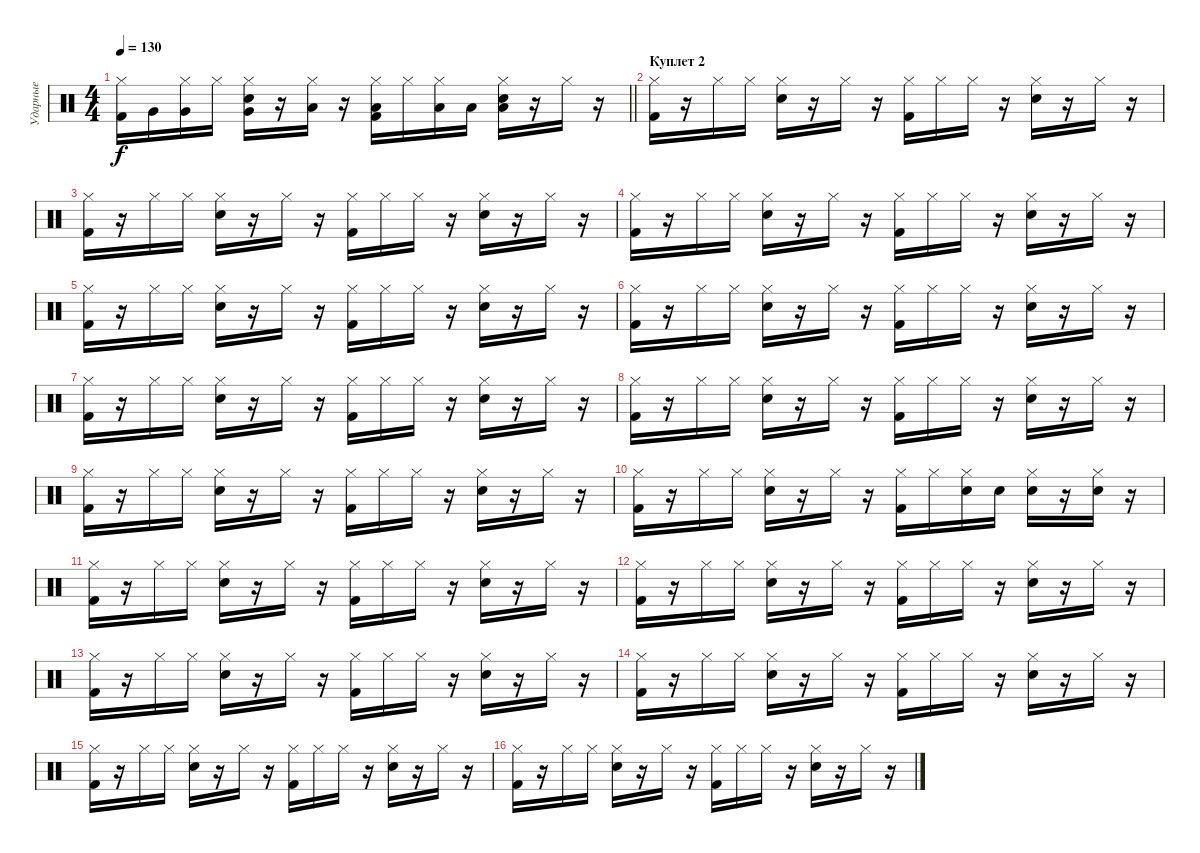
\track ("Ударные" "Ударные") {instrument percussion}
\staff {score}
\articulation defaults
\ts (4 4)
\tempo 130
\clef neutral
\barLineRight lightlight
\ks c
("Kick (hit) 2" "Hi-Hat (closed)").16{dy f} "Very Low Tom (hit)".16 ("Very Low Tom (hit)" "Hi-Hat (closed)").16 "Hi-Hat (closed)".16 ("Snare (hit) 2" "Very Low Tom (hit)" "Hi-Hat (closed)").16 r.16 ("Low Tom (hit)" "Hi-Hat (closed)").16 r.16 ("Kick (hit) 2" "Low Tom (hit)" "Hi-Hat (closed)").16 "Hi-Hat (closed)".16 ("Low Tom (hit)" "Hi-Hat (closed)").16 "Low Tom (hit)".16 ("Snare (hit) 2" "Low Tom (hit)" "Hi-Hat (closed)").16 r.16 "Hi-Hat (closed)".16 r.16 |
\section ("" "Куплет 2")
("Kick (hit) 2" "Hi-Hat (closed)").16 r.16 "Hi-Hat (closed)".16 "Hi-Hat (closed)".16 ("Snare (hit) 2" "Hi-Hat (closed)").16 r.16 "Hi-Hat (closed)".16 r.16 ("Kick (hit) 2" "Hi-Hat (closed)").16 "Hi-Hat (closed)".16 "Hi-Hat (closed)".16 r.16 ("Snare (hit) 2" "Hi-Hat (closed)").16 r.16 "Hi-Hat (closed)".16 r.16 |
("Kick (hit) 2" "Hi-Hat (closed)").16 r.16 "Hi-Hat (closed)".16 "Hi-Hat (closed)".16 ("Snare (hit) 2" "Hi-Hat (closed)").16 r.16 "Hi-Hat (closed)".16 r.16 ("Kick (hit) 2" "Hi-Hat (closed)").16 "Hi-Hat (closed)".16 "Hi-Hat (closed)".16 r.16 ("Snare (hit) 2" "Hi-Hat (closed)").16 r.16 "Hi-Hat (closed)".16 r.16 |
("Kick (hit) 2" "Hi-Hat (closed)").16 r.16 "Hi-Hat (closed)".16 "Hi-Hat (closed)".16 ("Snare (hit) 2" "Hi-Hat (closed)").16 r.16 "Hi-Hat (closed)".16 r.16 ("Kick (hit) 2" "Hi-Hat (closed)").16 "Hi-Hat (closed)".16 "Hi-Hat (closed)".16 r.16 ("Snare (hit) 2" "Hi-Hat (closed)").16 r.16 "Hi-Hat (closed)".16 r.16 |
("Kick (hit) 2" "Hi-Hat (closed)").16 r.16 "Hi-Hat (closed)".16 "Hi-Hat (closed)".16 ("Snare (hit) 2" "Hi-Hat (closed)").16 r.16 "Hi-Hat (closed)".16 r.16 ("Kick (hit) 2" "Hi-Hat (closed)").16 "Hi-Hat (closed)".16 "Hi-Hat (closed)".16 r.16 ("Snare (hit) 2" "Hi-Hat (closed)").16 r.16 "Hi-Hat (closed)".16 r.16 |
("Kick (hit) 2" "Hi-Hat (closed)").16 r.16 "Hi-Hat (closed)".16 "Hi-Hat (closed)".16 ("Snare (hit) 2" "Hi-Hat (closed)").16 r.16 "Hi-Hat (closed)".16 r.16 ("Kick (hit) 2" "Hi-Hat (closed)").16 "Hi-Hat (closed)".16 "Hi-Hat (closed)".16 r.16 ("Snare (hit) 2" "Hi-Hat (closed)").16 r.16 "Hi-Hat (closed)".16 r.16 |
("Kick (hit) 2" "Hi-Hat (closed)").16 r.16 "Hi-Hat (closed)".16 "Hi-Hat (closed)".16 ("Snare (hit) 2" "Hi-Hat (closed)").16 r.16 "Hi-Hat (closed)".16 r.16 ("Kick (hit) 2" "Hi-Hat (closed)").16 "Hi-Hat (closed)".16 "Hi-Hat (closed)".16 r.16 ("Snare (hit) 2" "Hi-Hat (closed)").16 r.16 "Hi-Hat (closed)".16 r.16 |
("Kick (hit) 2" "Hi-Hat (closed)").16 r.16 "Hi-Hat (closed)".16 "Hi-Hat (closed)".16 ("Snare (hit) 2" "Hi-Hat (closed)").16 r.16 "Hi-Hat (closed)".16 r.16 ("Kick (hit) 2" "Hi-Hat (closed)").16 "Hi-Hat (closed)".16 "Hi-Hat (closed)".16 r.16 ("Snare (hit) 2" "Hi-Hat (closed)").16 r.16 "Hi-Hat (closed)".16 r.16 |
("Kick (hit) 2" "Hi-Hat (closed)").16 r.16 "Hi-Hat (closed)".16 "Hi-Hat (closed)".16 ("Snare (hit) 2" "Hi-Hat (closed)").16 r.16 "Hi-Hat (closed)".16 r.16 ("Kick (hit) 2" "Hi-Hat (closed)").16 "Hi-Hat (closed)".16 "Hi-Hat (closed)".16 r.16 ("Snare (hit) 2" "Hi-Hat (closed)").16 r.16 "Hi-Hat (closed)".16 r.16 |
("Kick (hit) 2" "Hi-Hat (closed)").16 r.16 "Hi-Hat (closed)".16 "Hi-Hat (closed)".16 ("Snare (hit) 2" "Hi-Hat (closed)").16 r.16 "Hi-Hat (closed)".16 r.16 ("Kick (hit) 2" "Hi-Hat (closed)").16 "Hi-Hat (closed)".16 ("Snare (hit) 2" "Hi-Hat (closed)").16 "Snare (hit) 2".16 ("Snare (hit) 2" "Hi-Hat (closed)").16 r.16 ("Snare (hit) 2" "Hi-Hat (closed)").16 r.16 |
("Kick (hit) 2" "Hi-Hat (closed)").16 r.16 "Hi-Hat (closed)".16 "Hi-Hat (closed)".16 ("Snare (hit) 2" "Hi-Hat (closed)").16 r.16 "Hi-Hat (closed)".16 r.16 ("Kick (hit) 2" "Hi-Hat (closed)").16 "Hi-Hat (closed)".16 "Hi-Hat (closed)".16 r.16 ("Snare (hit) 2" "Hi-Hat (closed)").16 r.16 "Hi-Hat (closed)".16 r.16 |
("Kick (hit) 2" "Hi-Hat (closed)").16 r.16 "Hi-Hat (closed)".16 "Hi-Hat (closed)".16 ("Snare (hit) 2" "Hi-Hat (closed)").16 r.16 "Hi-Hat (closed)".16 r.16 ("Kick (hit) 2" "Hi-Hat (closed)").16 "Hi-Hat (closed)".16 "Hi-Hat (closed)".16 r.16 ("Snare (hit) 2" "Hi-Hat (closed)").16 r.16 "Hi-Hat (closed)".16 r.16 |
("Kick (hit) 2" "Hi-Hat (closed)").16 r.16 "Hi-Hat (closed)".16 "Hi-Hat (closed)".16 ("Snare (hit) 2" "Hi-Hat (closed)").16 r.16 "Hi-Hat (closed)".16 r.16 ("Kick (hit) 2" "Hi-Hat (closed)").16 "Hi-Hat (closed)".16 "Hi-Hat (closed)".16 r.16 ("Snare (hit) 2" "Hi-Hat (closed)").16 r.16 "Hi-Hat (closed)".16 r.16 |
("Kick (hit) 2" "Hi-Hat (closed)").16 r.16 "Hi-Hat (closed)".16 "Hi-Hat (closed)".16 ("Snare (hit) 2" "Hi-Hat (closed)").16 r.16 "Hi-Hat (closed)".16 r.16 ("Kick (hit) 2" "Hi-Hat (closed)").16 "Hi-Hat (closed)".16 "Hi-Hat (closed)".16 r.16 ("Snare (hit) 2" "Hi-Hat (closed)").16 r.16 "Hi-Hat (closed)".16 r.16 |
("Kick (hit) 2" "Hi-Hat (closed)").16 r.16 "Hi-Hat (closed)".16 "Hi-Hat (closed)".16 ("Snare (hit) 2" "Hi-Hat (closed)").16 r.16 "Hi-Hat (closed)".16 r.16 ("Kick (hit) 2" "Hi-Hat (closed)").16 "Hi-Hat (closed)".16 "Hi-Hat (closed)".16 r.16 ("Snare (hit) 2" "Hi-Hat (closed)").16 r.16 "Hi-Hat (closed)".16 r.16 |
("Kick (hit) 2" "Hi-Hat (closed)").16 r.16 "Hi-Hat (closed)".16 "Hi-Hat (closed)".16 ("Snare (hit) 2" "Hi-Hat (closed)").16 r.16 "Hi-Hat (closed)".16 r.16 ("Kick (hit) 2" "Hi-Hat (closed)").16 "Hi-Hat (closed)".16 "Hi-Hat (closed)".16 r.16 ("Snare (hit) 2" "Hi-Hat (closed)").16 r.16 "Hi-Hat (closed)".16 r.16
